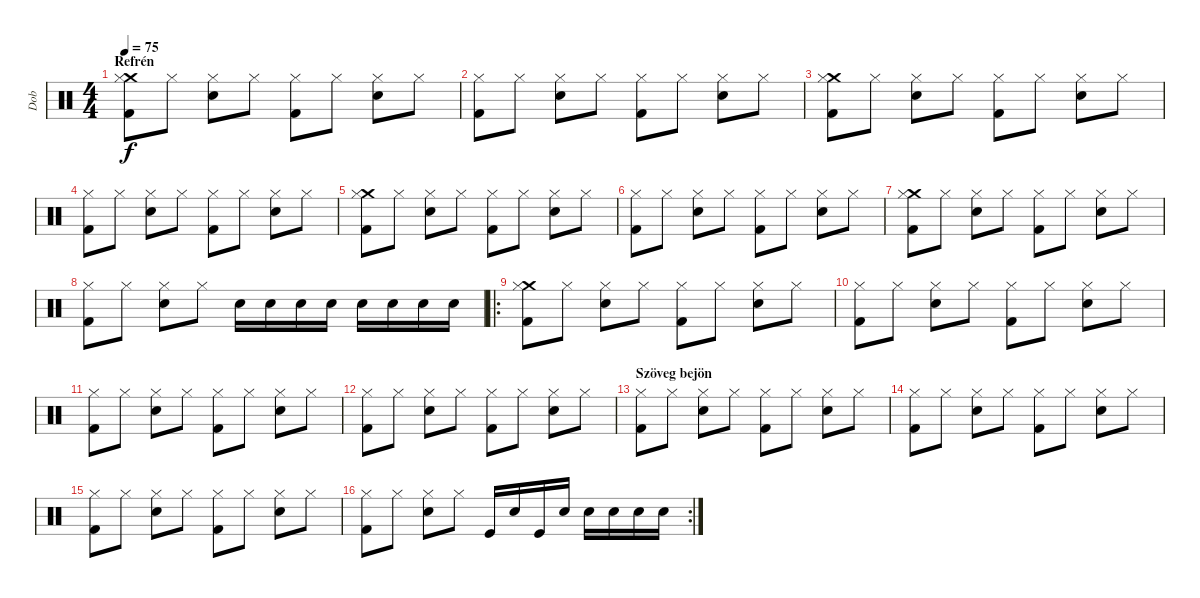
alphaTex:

\track ("Dob" "Dob") {instrument percussion}
\staff {score}
\articulation defaults
\ts (4 4)
\section ("" "Refrén")
\tempo 75
\clef neutral
\ks c
("Crash medium (hit)" "Kick (hit) 2" "Hi-Hat (closed)").8{dy f} "Hi-Hat (closed)".8 ("Snare (hit) 2" "Hi-Hat (closed)").8 "Hi-Hat (closed)".8 ("Kick (hit) 2" "Hi-Hat (closed)").8 "Hi-Hat (closed)".8 ("Snare (hit) 2" "Hi-Hat (closed)").8 "Hi-Hat (closed)".8 |
("Kick (hit) 2" "Hi-Hat (closed)").8 "Hi-Hat (closed)".8 ("Snare (hit) 2" "Hi-Hat (closed)").8 "Hi-Hat (closed)".8 ("Kick (hit) 2" "Hi-Hat (closed)").8 "Hi-Hat (closed)".8 ("Snare (hit) 2" "Hi-Hat (closed)").8 "Hi-Hat (closed)".8 |
("Crash medium (hit)" "Kick (hit) 2" "Hi-Hat (closed)").8 "Hi-Hat (closed)".8 ("Snare (hit) 2" "Hi-Hat (closed)").8 "Hi-Hat (closed)".8 ("Kick (hit) 2" "Hi-Hat (closed)").8 "Hi-Hat (closed)".8 ("Snare (hit) 2" "Hi-Hat (closed)").8 "Hi-Hat (closed)".8 |
("Kick (hit) 2" "Hi-Hat (closed)").8 "Hi-Hat (closed)".8 ("Snare (hit) 2" "Hi-Hat (closed)").8 "Hi-Hat (closed)".8 ("Kick (hit) 2" "Hi-Hat (closed)").8 "Hi-Hat (closed)".8 ("Snare (hit) 2" "Hi-Hat (closed)").8 "Hi-Hat (closed)".8 |
("Crash medium (hit)" "Kick (hit) 2" "Hi-Hat (closed)").8 "Hi-Hat (closed)".8 ("Snare (hit) 2" "Hi-Hat (closed)").8 "Hi-Hat (closed)".8 ("Kick (hit) 2" "Hi-Hat (closed)").8 "Hi-Hat (closed)".8 ("Snare (hit) 2" "Hi-Hat (closed)").8 "Hi-Hat (closed)".8 |
("Kick (hit) 2" "Hi-Hat (closed)").8 "Hi-Hat (closed)".8 ("Snare (hit) 2" "Hi-Hat (closed)").8 "Hi-Hat (closed)".8 ("Kick (hit) 2" "Hi-Hat (closed)").8 "Hi-Hat (closed)".8 ("Snare (hit) 2" "Hi-Hat (closed)").8 "Hi-Hat (closed)".8 |
("Crash medium (hit)" "Kick (hit) 2" "Hi-Hat (closed)").8 "Hi-Hat (closed)".8 ("Snare (hit) 2" "Hi-Hat (closed)").8 "Hi-Hat (closed)".8 ("Kick (hit) 2" "Hi-Hat (closed)").8 "Hi-Hat (closed)".8 ("Snare (hit) 2" "Hi-Hat (closed)").8 "Hi-Hat (closed)".8 |
("Kick (hit) 2" "Hi-Hat (closed)").8 "Hi-Hat (closed)".8 ("Snare (hit) 2" "Hi-Hat (closed)").8 "Hi-Hat (closed)".8 "Snare (hit) 2".16 "Snare (hit) 2".16 "Snare (hit) 2".16 "Snare (hit) 2".16 "Snare (hit) 2".16 "Snare (hit) 2".16 "Snare (hit) 2".16 "Snare (hit) 2".16 |
\ro
("Crash medium (hit)" "Kick (hit) 2" "Hi-Hat (closed)").8 "Hi-Hat (closed)".8 ("Snare (hit) 2" "Hi-Hat (closed)").8 "Hi-Hat (closed)".8 ("Kick (hit) 2" "Hi-Hat (closed)").8 "Hi-Hat (closed)".8 ("Snare (hit) 2" "Hi-Hat (closed)").8 "Hi-Hat (closed)".8 |
("Kick (hit) 2" "Hi-Hat (closed)").8 "Hi-Hat (closed)".8 ("Snare (hit) 2" "Hi-Hat (closed)").8 "Hi-Hat (closed)".8 ("Kick (hit) 2" "Hi-Hat (closed)").8 "Hi-Hat (closed)".8 ("Snare (hit) 2" "Hi-Hat (closed)").8 "Hi-Hat (closed)".8 |
("Kick (hit) 2" "Hi-Hat (closed)").8 "Hi-Hat (closed)".8 ("Snare (hit) 2" "Hi-Hat (closed)").8 "Hi-Hat (closed)".8 ("Kick (hit) 2" "Hi-Hat (closed)").8 "Hi-Hat (closed)".8 ("Snare (hit) 2" "Hi-Hat (closed)").8 "Hi-Hat (closed)".8 |
("Kick (hit) 2" "Hi-Hat (closed)").8 "Hi-Hat (closed)".8 ("Snare (hit) 2" "Hi-Hat (closed)").8 "Hi-Hat (closed)".8 ("Kick (hit) 2" "Hi-Hat (closed)").8 "Hi-Hat (closed)".8 ("Snare (hit) 2" "Hi-Hat (closed)").8 "Hi-Hat (closed)".8 |
\section ("" "Szöveg bejön")
("Kick (hit) 2" "Hi-Hat (closed)").8 "Hi-Hat (closed)".8 ("Snare (hit) 2" "Hi-Hat (closed)").8 "Hi-Hat (closed)".8 ("Kick (hit) 2" "Hi-Hat (closed)").8 "Hi-Hat (closed)".8 ("Snare (hit) 2" "Hi-Hat (closed)").8 "Hi-Hat (closed)".8 |
("Kick (hit) 2" "Hi-Hat (closed)").8 "Hi-Hat (closed)".8 ("Snare (hit) 2" "Hi-Hat (closed)").8 "Hi-Hat (closed)".8 ("Kick (hit) 2" "Hi-Hat (closed)").8 "Hi-Hat (closed)".8 ("Snare (hit) 2" "Hi-Hat (closed)").8 "Hi-Hat (closed)".8 |
("Kick (hit) 2" "Hi-Hat (closed)").8 "Hi-Hat (closed)".8 ("Snare (hit) 2" "Hi-Hat (closed)").8 "Hi-Hat (closed)".8 ("Kick (hit) 2" "Hi-Hat (closed)").8 "Hi-Hat (closed)".8 ("Snare (hit) 2" "Hi-Hat (closed)").8 "Hi-Hat (closed)".8 |
\rc 2
("Kick (hit) 2" "Hi-Hat (closed)").8 "Hi-Hat (closed)".8 ("Snare (hit) 2" "Hi-Hat (closed)").8 "Hi-Hat (closed)".8 "Kick (hit)".16 "Snare (hit) 2".16 "Kick (hit)".16 "Snare (hit) 2".16 "Snare (hit) 2".16 "Snare (hit) 2".16 "Snare (hit) 2".16 "Snare (hit) 2".16
